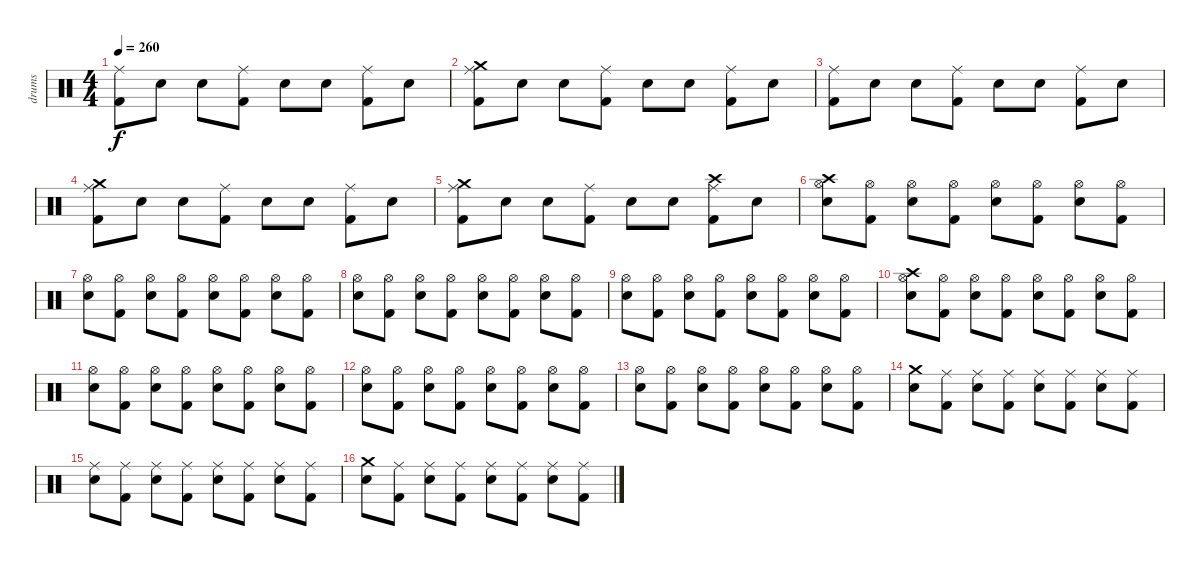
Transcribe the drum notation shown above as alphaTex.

\track ("drums" "drums") {instrument percussion}
\staff {score}
\articulation defaults
\ts (4 4)
\tempo 260
\clef neutral
\ks c
("Ride (middle)" "Kick (hit) 2").8{dy f} "Electric Snare (hit)".8 "Electric Snare (hit)".8 ("Ride (middle)" "Kick (hit) 2").8 "Electric Snare (hit)".8 "Electric Snare (hit)".8 ("Ride (middle)" "Kick (hit) 2").8 "Electric Snare (hit)".8 |
("Crash medium (hit)" "Ride (middle)" "Kick (hit) 2").8 "Electric Snare (hit)".8 "Electric Snare (hit)".8 ("Ride (middle)" "Kick (hit) 2").8 "Electric Snare (hit)".8 "Electric Snare (hit)".8 ("Ride (middle)" "Kick (hit) 2").8 "Electric Snare (hit)".8 |
("Ride (middle)" "Kick (hit) 2").8 "Electric Snare (hit)".8 "Electric Snare (hit)".8 ("Ride (middle)" "Kick (hit) 2").8 "Electric Snare (hit)".8 "Electric Snare (hit)".8 ("Ride (middle)" "Kick (hit) 2").8 "Electric Snare (hit)".8 |
("Crash medium (hit)" "Ride (middle)" "Kick (hit) 2").8 "Electric Snare (hit)".8 "Electric Snare (hit)".8 ("Ride (middle)" "Kick (hit) 2").8 "Electric Snare (hit)".8 "Electric Snare (hit)".8 ("Ride (middle)" "Kick (hit) 2").8 "Electric Snare (hit)".8 |
("Crash medium (hit)" "Ride (middle)" "Kick (hit) 2").8 "Electric Snare (hit)".8 "Electric Snare (hit)".8 ("Ride (middle)" "Kick (hit) 2").8 "Electric Snare (hit)".8 "Electric Snare (hit)".8 ("Crash high (hit)" "Ride (middle)" "Kick (hit) 2").8 "Electric Snare (hit)".8 |
("Crash high (hit)" "Hi-Hat (open)" "Electric Snare (hit)").8 ("Hi-Hat (open)" "Kick (hit) 2").8 ("Hi-Hat (open)" "Electric Snare (hit)").8 ("Hi-Hat (open)" "Kick (hit) 2").8 ("Hi-Hat (open)" "Electric Snare (hit)").8 ("Hi-Hat (open)" "Kick (hit) 2").8 ("Hi-Hat (open)" "Electric Snare (hit)").8 ("Hi-Hat (open)" "Kick (hit) 2").8 |
("Hi-Hat (open)" "Electric Snare (hit)").8 ("Hi-Hat (open)" "Kick (hit) 2").8 ("Hi-Hat (open)" "Electric Snare (hit)").8 ("Hi-Hat (open)" "Kick (hit) 2").8 ("Hi-Hat (open)" "Electric Snare (hit)").8 ("Hi-Hat (open)" "Kick (hit) 2").8 ("Hi-Hat (open)" "Electric Snare (hit)").8 ("Hi-Hat (open)" "Kick (hit) 2").8 |
("Hi-Hat (open)" "Electric Snare (hit)").8 ("Hi-Hat (open)" "Kick (hit) 2").8 ("Hi-Hat (open)" "Electric Snare (hit)").8 ("Hi-Hat (open)" "Kick (hit) 2").8 ("Hi-Hat (open)" "Electric Snare (hit)").8 ("Hi-Hat (open)" "Kick (hit) 2").8 ("Hi-Hat (open)" "Electric Snare (hit)").8 ("Hi-Hat (open)" "Kick (hit) 2").8 |
("Hi-Hat (open)" "Electric Snare (hit)").8 ("Hi-Hat (open)" "Kick (hit) 2").8 ("Hi-Hat (open)" "Electric Snare (hit)").8 ("Hi-Hat (open)" "Kick (hit) 2").8 ("Hi-Hat (open)" "Electric Snare (hit)").8 ("Hi-Hat (open)" "Kick (hit) 2").8 ("Hi-Hat (open)" "Electric Snare (hit)").8 ("Hi-Hat (open)" "Kick (hit) 2").8 |
("Crash high (hit)" "Hi-Hat (open)" "Electric Snare (hit)").8 ("Hi-Hat (open)" "Kick (hit) 2").8 ("Hi-Hat (open)" "Electric Snare (hit)").8 ("Hi-Hat (open)" "Kick (hit) 2").8 ("Hi-Hat (open)" "Electric Snare (hit)").8 ("Hi-Hat (open)" "Kick (hit) 2").8 ("Hi-Hat (open)" "Electric Snare (hit)").8 ("Hi-Hat (open)" "Kick (hit) 2").8 |
("Hi-Hat (open)" "Electric Snare (hit)").8 ("Hi-Hat (open)" "Kick (hit) 2").8 ("Hi-Hat (open)" "Electric Snare (hit)").8 ("Hi-Hat (open)" "Kick (hit) 2").8 ("Hi-Hat (open)" "Electric Snare (hit)").8 ("Hi-Hat (open)" "Kick (hit) 2").8 ("Hi-Hat (open)" "Electric Snare (hit)").8 ("Hi-Hat (open)" "Kick (hit) 2").8 |
("Hi-Hat (open)" "Electric Snare (hit)").8 ("Hi-Hat (open)" "Kick (hit) 2").8 ("Hi-Hat (open)" "Electric Snare (hit)").8 ("Hi-Hat (open)" "Kick (hit) 2").8 ("Hi-Hat (open)" "Electric Snare (hit)").8 ("Hi-Hat (open)" "Kick (hit) 2").8 ("Hi-Hat (open)" "Electric Snare (hit)").8 ("Hi-Hat (open)" "Kick (hit) 2").8 |
("Hi-Hat (open)" "Electric Snare (hit)").8 ("Hi-Hat (open)" "Kick (hit) 2").8 ("Hi-Hat (open)" "Electric Snare (hit)").8 ("Hi-Hat (open)" "Kick (hit) 2").8 ("Hi-Hat (open)" "Electric Snare (hit)").8 ("Hi-Hat (open)" "Kick (hit) 2").8 ("Hi-Hat (open)" "Electric Snare (hit)").8 ("Hi-Hat (open)" "Kick (hit) 2").8 |
("Crash medium (hit)" "Electric Snare (hit)").8 ("Ride (middle)" "Kick (hit) 2").8 ("Ride (middle)" "Electric Snare (hit)").8 ("Ride (middle)" "Kick (hit) 2").8 ("Ride (middle)" "Electric Snare (hit)").8 ("Ride (middle)" "Kick (hit) 2").8 ("Ride (middle)" "Electric Snare (hit)").8 ("Ride (middle)" "Kick (hit) 2").8 |
("Ride (middle)" "Electric Snare (hit)").8 ("Ride (middle)" "Kick (hit) 2").8 ("Ride (middle)" "Electric Snare (hit)").8 ("Ride (middle)" "Kick (hit) 2").8 ("Ride (middle)" "Electric Snare (hit)").8 ("Ride (middle)" "Kick (hit) 2").8 ("Ride (middle)" "Electric Snare (hit)").8 ("Ride (middle)" "Kick (hit) 2").8 |
("Crash medium (hit)" "Electric Snare (hit)").8 ("Ride (middle)" "Kick (hit) 2").8 ("Ride (middle)" "Electric Snare (hit)").8 ("Ride (middle)" "Kick (hit) 2").8 ("Ride (middle)" "Electric Snare (hit)").8 ("Ride (middle)" "Kick (hit) 2").8 ("Ride (middle)" "Electric Snare (hit)").8 ("Ride (middle)" "Kick (hit) 2").8
